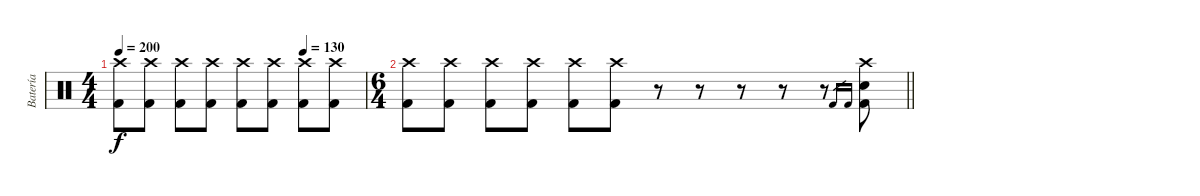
\track ("Batería" "Batería") {instrument percussion}
\staff {score}
\articulation defaults
\ts (4 4)
\tempo 200
\tempo (130 0.75)
\clef neutral
\ks c
("Crash high (hit)" "Kick (hit) 2").8{dy f} ("Crash high (hit)" "Kick (hit) 2").8 ("Crash high (hit)" "Kick (hit) 2").8 ("Crash high (hit)" "Kick (hit) 2").8 ("Crash high (hit)" "Kick (hit) 2").8 ("Crash high (hit)" "Kick (hit) 2").8 ("Crash high (hit)" "Kick (hit) 2").8 ("Crash high (hit)" "Kick (hit) 2").8 |
\ts (6 4)
\barLineRight lightlight
("Crash high (hit)" "Kick (hit) 2").8 ("Crash high (hit)" "Kick (hit) 2").8 ("Crash high (hit)" "Kick (hit) 2").8 ("Crash high (hit)" "Kick (hit) 2").8 ("Crash high (hit)" "Kick (hit) 2").8 ("Crash high (hit)" "Kick (hit) 2").8 r.8 r.8 r.8 r.8 r.8 "Kick (hit) 2".16{gr} "Kick (hit) 2".16{gr} ("Crash high (hit)" "Electric Snare (hit)" "Kick (hit) 2").8
